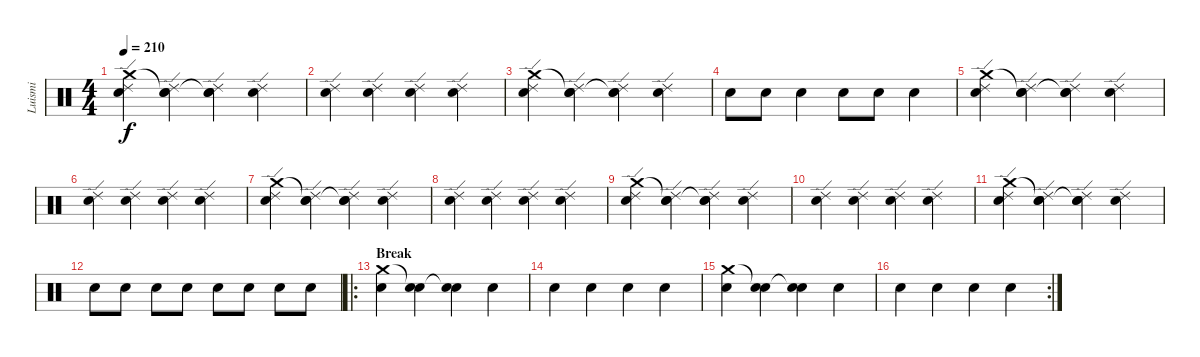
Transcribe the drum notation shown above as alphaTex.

\track ("Luismi" "Luismi") {instrument percussion}
\staff {score}
\articulation defaults
\ts (4 4)
\tempo 210
\clef neutral
\ks c
("Snare (hit) 2" "Ride (edge) 2" "Crash medium (hit)").4{dy f} ("Electric Snare (hit)" "Ride (edge) 2" "Snare (hit)"{t}).4 ("Snare (hit) 2" "Ride (edge) 2" "Snare (hit)"{t}).4 ("Electric Snare (hit)" "Ride (edge) 2").4 |
("Snare (hit) 2" "Ride (edge) 2").4 ("Electric Snare (hit)" "Ride (edge) 2").4 ("Snare (hit) 2" "Ride (edge) 2").4 ("Electric Snare (hit)" "Ride (edge) 2").4 |
("Snare (hit) 2" "Ride (edge) 2" "Crash medium (hit)").4 ("Electric Snare (hit)" "Ride (edge) 2" "Snare (hit)"{t}).4 ("Snare (hit) 2" "Ride (edge) 2" "Snare (hit)"{t}).4 ("Electric Snare (hit)" "Ride (edge) 2").4 |
"Snare (hit) 2".8 "Snare (hit) 2".8 "Electric Snare (hit)".4 "Snare (hit) 2".8 "Snare (hit) 2".8 "Electric Snare (hit)".4 |
("Snare (hit) 2" "Ride (edge) 2" "Crash medium (hit)").4 ("Electric Snare (hit)" "Ride (edge) 2" "Snare (hit)"{t}).4 ("Snare (hit) 2" "Ride (edge) 2" "Snare (hit)"{t}).4 ("Electric Snare (hit)" "Ride (edge) 2").4 |
("Snare (hit) 2" "Ride (edge) 2").4 ("Electric Snare (hit)" "Ride (edge) 2").4 ("Snare (hit) 2" "Ride (edge) 2").4 ("Electric Snare (hit)" "Ride (edge) 2").4 |
("Snare (hit) 2" "Ride (edge) 2" "Crash medium (hit)").4 ("Electric Snare (hit)" "Ride (edge) 2" "Snare (hit)"{t}).4 ("Snare (hit) 2" "Ride (edge) 2" "Snare (hit)"{t}).4 ("Electric Snare (hit)" "Ride (edge) 2").4 |
("Snare (hit) 2" "Ride (edge) 2").4 ("Electric Snare (hit)" "Ride (edge) 2").4 ("Snare (hit) 2" "Ride (edge) 2").4 ("Electric Snare (hit)" "Ride (edge) 2").4 |
("Snare (hit) 2" "Ride (edge) 2" "Crash medium (hit)").4 ("Electric Snare (hit)" "Ride (edge) 2" "Snare (hit)"{t}).4 ("Snare (hit) 2" "Ride (edge) 2" "Snare (hit)"{t}).4 ("Electric Snare (hit)" "Ride (edge) 2").4 |
("Snare (hit) 2" "Ride (edge) 2").4 ("Electric Snare (hit)" "Ride (edge) 2").4 ("Snare (hit) 2" "Ride (edge) 2").4 ("Electric Snare (hit)" "Ride (edge) 2").4 |
("Snare (hit) 2" "Ride (edge) 2" "Crash medium (hit)").4 ("Electric Snare (hit)" "Ride (edge) 2" "Snare (hit)"{t}).4 ("Snare (hit) 2" "Ride (edge) 2" "Snare (hit)"{t}).4 ("Electric Snare (hit)" "Ride (edge) 2").4 |
"Snare (hit) 2".8 "Snare (hit) 2".8 "Snare (hit) 2".8 "Snare (hit) 2".8 "Snare (hit) 2".8 "Snare (hit) 2".8 "Snare (hit) 2".8 "Snare (hit) 2".8 |
\ro
\section ("" "Break")
("Snare (hit) 2" "Crash medium (hit)").4 ("Electric Snare (hit)" "Snare (hit)"{t}).4 ("Snare (hit) 2" "Snare (hit)"{t}).4 "Electric Snare (hit)".4 |
"Snare (hit) 2".4 "Electric Snare (hit)".4 "Snare (hit) 2".4 "Electric Snare (hit)".4 |
("Snare (hit) 2" "Crash medium (hit)").4 ("Electric Snare (hit)" "Snare (hit)"{t}).4 ("Snare (hit) 2" "Snare (hit)"{t}).4 "Electric Snare (hit)".4 |
\rc 2 "Snare (hit) 2".4 "Electric Snare (hit)".4 "Snare (hit) 2".4 "Electric Snare (hit)".4
